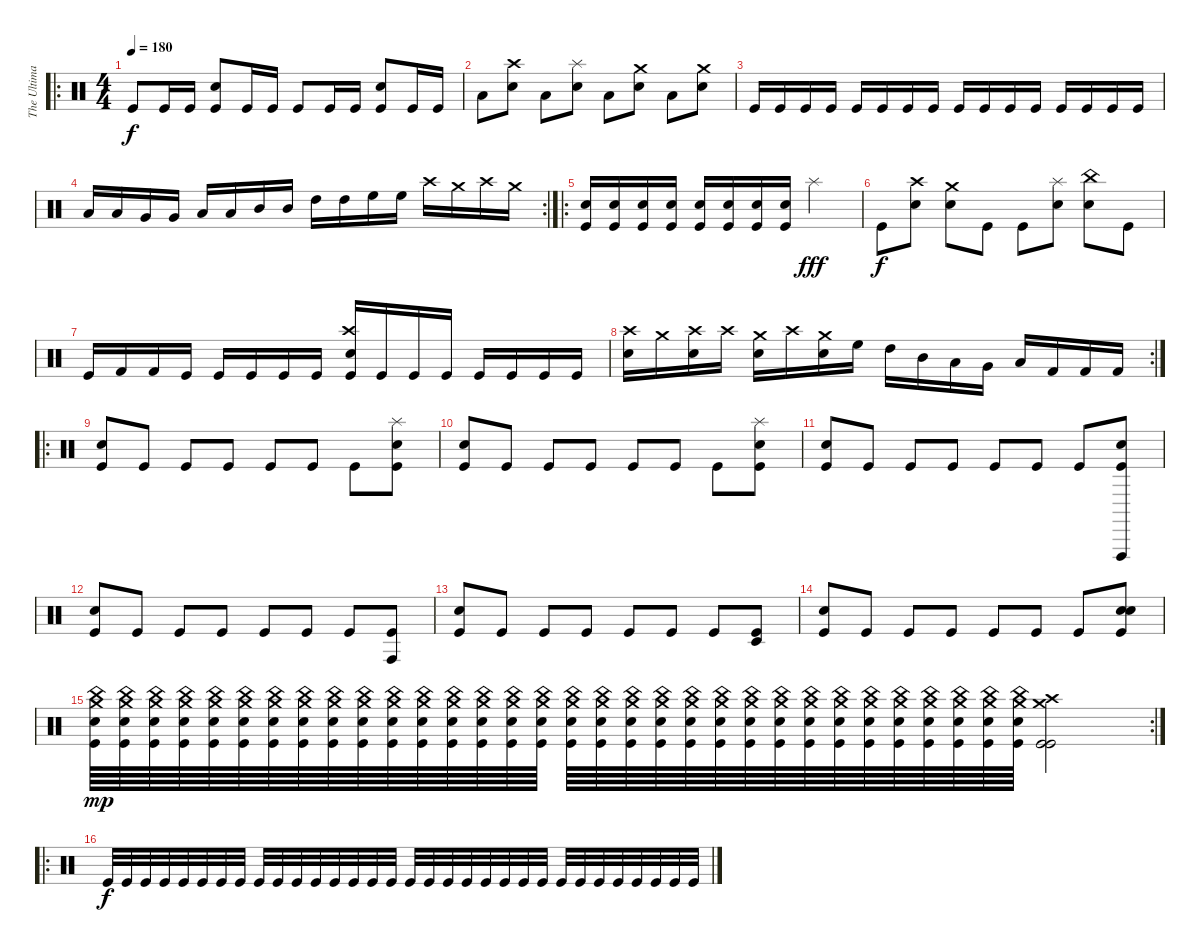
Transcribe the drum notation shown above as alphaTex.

\track ("The Ultimate hero" "The Ultima") {instrument percussion}
\staff {score}
\articulation defaults
\ro
\ts (4 4)
\tempo 180
\clef neutral
\ks c "Kick (hit)".8{dy f} "Kick (hit)".16 "Kick (hit)".16
("Kick (hit)" "Snare (hit) 2").8 "Kick (hit)".16 "Kick (hit)".16 "Kick (hit)".8 "Kick (hit)".16 "Kick (hit)".16 ("Kick (hit)" "Snare (hit) 2").8 "Kick (hit)".16 "Kick (hit)".16 |
"Low Floor Tom (hit)".8 ("Crash high (hit)" "Snare (hit) 2").8 "Low Floor Tom (hit)".8 ("Splash (hit)" "Snare (hit) 2").8 "Low Floor Tom (hit)".8 ("Crash medium (hit)" "Snare (hit) 2").8 "Low Floor Tom (hit)".8 ("Crash medium (hit)" "Snare (hit) 2").8 |
"Kick (hit)".16 "Kick (hit)".16 "Kick (hit)".16 "Kick (hit)".16 "Kick (hit)".16 "Kick (hit)".16 "Kick (hit)".16 "Kick (hit)".16 "Kick (hit)".16 "Kick (hit)".16 "Kick (hit)".16 "Kick (hit)".16 "Kick (hit)".16 "Kick (hit)".16 "Kick (hit)".16 "Kick (hit)".16 |
\rc 2 "Low Floor Tom (hit)".16 "Low Floor Tom (hit)".16 "Very Low Tom (hit)".16 "Very Low Tom (hit)".16 "Low Tom (hit)".16 "Low Tom (hit)".16 "Mid Tom (hit)".16 "Mid Tom (hit)".16 "High Tom (hit)".16 "High Tom (hit)".16 "High Floor Tom (hit)".16 "High Floor Tom (hit)".16 "Crash high (hit)".16 "Crash medium (hit)".16 "Crash high (hit)".16 "Crash medium (hit)".16
|
\ro
("Kick (hit)" "Snare (hit) 2").16 ("Kick (hit)" "Snare (hit) 2").16 ("Kick (hit)" "Snare (hit) 2").16 ("Kick (hit)" "Snare (hit) 2").16 ("Kick (hit)" "Snare (hit) 2").16 ("Kick (hit)" "Snare (hit) 2").16 ("Kick (hit)" "Snare (hit) 2").16 ("Kick (hit)" "Snare (hit) 2").16 "Splash (hit)".2{dy fff} |
"Kick (hit)".8{dy f} ("Crash high (hit)" "Snare (hit) 2").8 ("Crash medium (hit)" "Snare (hit) 2").8 "Kick (hit)".8 "Kick (hit)".8 ("Splash (hit)" "Snare (hit) 2").8 ("China (hit)" "Snare (hit) 2").8 "Kick (hit)".8 |
"Kick (hit)".16 "Kick (hit) 2".16 "Kick (hit) 2".16 "Kick (hit)".16 "Kick (hit)".16 "Kick (hit)".16 "Kick (hit)".16 "Kick (hit)".16 ("Electric Snare (hit)" "Kick (hit)" "Crash high (hit)").16 "Kick (hit)".16 "Kick (hit)".16 "Kick (hit)".16 "Kick (hit)".16 "Kick (hit)".16 "Kick (hit)".16 "Kick (hit)".16 |
\rc 2
("Crash high (hit)" "Snare (hit) 2").16 "Crash medium (hit)".16 ("Crash high (hit)" "Snare (hit) 2").16 "Crash high (hit)".16 ("Crash medium (hit)" "Snare (hit) 2").16 "Crash high (hit)".16 ("Crash medium (hit)" "Snare (hit) 2").16 "High Floor Tom (hit)".16 "High Tom (hit)".16 "Mid Tom (hit)".16 "Low Tom (hit)".16 "Very Low Tom (hit)".16 "Low Floor Tom (hit)".16 "Kick (hit) 2".16 "Kick (hit) 2".16 "Kick (hit) 2".16 |
\ro
("Kick (hit)" "Snare (hit) 2").8 "Kick (hit)".8 "Kick (hit)".8 "Kick (hit)".8 "Kick (hit)".8 "Kick (hit)".8 "Kick (hit)".8 ("Kick (hit)" "Snare (hit) 2" "Splash (hit)").8 |
("Kick (hit)" "Snare (hit) 2").8 "Kick (hit)".8 "Kick (hit)".8 "Kick (hit)".8 "Kick (hit)".8 "Kick (hit)".8 "Kick (hit)".8 ("Kick (hit)" "Snare (hit) 2" "Splash (hit)").8 |
("Kick (hit)" "Snare (hit) 2").8 "Kick (hit)".8 "Kick (hit)".8 "Kick (hit)".8 "Kick (hit)".8 "Kick (hit)".8 "Kick (hit)".8 ("Kick (hit)" "Snare (hit) 2" "Vibraslap (hit)").8 |
("Kick (hit)" "Electric Snare (hit)").8 "Kick (hit)".8 "Kick (hit)".8 "Kick (hit)".8 "Kick (hit)".8 "Kick (hit)".8 "Kick (hit)".8 ("Kick (hit)" "Conga high (hit)").8 |
("Kick (hit)" "Electric Snare (hit)").8 "Kick (hit)".8 "Kick (hit)".8 "Kick (hit)".8 "Kick (hit)".8 "Kick (hit)".8 "Kick (hit)".8 ("Kick (hit)" "Timbale low (hit)").8 |
("Kick (hit)" "Snare (hit) 2").8 "Kick (hit)".8 "Kick (hit)".8 "Kick (hit)".8 "Kick (hit)".8 "Kick (hit)".8 "Kick (hit)".8 ("Kick (hit)" "Hand Clap (hit)" "Snare (hit) 2").8 |
\rc 2
("China (hit)" "Snare (hit) 2" "Kick (hit)" "Crash medium (hit)").64{dy mp} ("China (hit)" "Snare (hit) 2" "Kick (hit)" "Crash medium (hit)").64 ("China (hit)" "Snare (hit) 2" "Kick (hit)" "Crash medium (hit)").64 ("China (hit)" "Snare (hit) 2" "Kick (hit)" "Crash medium (hit)").64 ("China (hit)" "Snare (hit) 2" "Kick (hit)" "Crash medium (hit)").64 ("China (hit)" "Snare (hit) 2" "Kick (hit)" "Crash medium (hit)").64 ("China (hit)" "Snare (hit) 2" "Kick (hit)" "Crash medium (hit)").64 ("China (hit)" "Snare (hit) 2" "Kick (hit)" "Crash medium (hit)").64 ("China (hit)" "Snare (hit) 2" "Kick (hit)" "Crash medium (hit)").64 ("China (hit)" "Snare (hit) 2" "Kick (hit)" "Crash medium (hit)").64 ("China (hit)" "Snare (hit) 2" "Kick (hit)" "Crash medium (hit)").64 ("China (hit)" "Snare (hit) 2" "Kick (hit)" "Crash medium (hit)").64 ("China (hit)" "Snare (hit) 2" "Kick (hit)" "Crash medium (hit)").64 ("China (hit)" "Snare (hit) 2" "Kick (hit)" "Crash medium (hit)").64 ("China (hit)" "Snare (hit) 2" "Kick (hit)" "Crash medium (hit)").64 ("China (hit)" "Snare (hit) 2" "Kick (hit)" "Crash medium (hit)").64 ("China (hit)" "Snare (hit) 2" "Kick (hit)" "Crash medium (hit)").64 ("China (hit)" "Snare (hit) 2" "Kick (hit)" "Crash medium (hit)").64 ("China (hit)" "Snare (hit) 2" "Kick (hit)" "Crash medium (hit)").64 ("China (hit)" "Snare (hit) 2" "Kick (hit)" "Crash medium (hit)").64 ("China (hit)" "Snare (hit) 2" "Kick (hit)" "Crash medium (hit)").64 ("China (hit)" "Snare (hit) 2" "Kick (hit)" "Crash medium (hit)").64 ("China (hit)" "Snare (hit) 2" "Kick (hit)" "Crash medium (hit)").64 ("China (hit)" "Snare (hit) 2" "Kick (hit)" "Crash medium (hit)").64 ("China (hit)" "Snare (hit) 2" "Kick (hit)" "Crash medium (hit)").64 ("China (hit)" "Snare (hit) 2" "Kick (hit)" "Crash medium (hit)").64 ("China (hit)" "Snare (hit) 2" "Kick (hit)" "Crash medium (hit)").64 ("China (hit)" "Snare (hit) 2" "Kick (hit)" "Crash medium (hit)").64 ("China (hit)" "Snare (hit) 2" "Kick (hit)" "Crash medium (hit)").64 ("China (hit)" "Snare (hit) 2" "Kick (hit)" "Crash medium (hit)").64 ("China (hit)" "Snare (hit) 2" "Kick (hit)" "Crash medium (hit)").64 ("China (hit)" "Snare (hit) 2" "Kick (hit)" "Crash medium (hit)").64 ("Crash high (hit)" "Kick (hit)" "Kick (hit)" "Crash medium (hit)").2 |
\ro "Kick (hit)".32{dy f} "Kick (hit)".32 "Kick (hit)".32 "Kick (hit)".32 "Kick (hit)".32 "Kick (hit)".32 "Kick (hit)".32 "Kick (hit)".32 "Kick (hit)".32 "Kick (hit)".32 "Kick (hit)".32 "Kick (hit)".32 "Kick (hit)".32 "Kick (hit)".32 "Kick (hit)".32 "Kick (hit)".32 "Kick (hit)".32 "Kick (hit)".32 "Kick (hit)".32 "Kick (hit)".32 "Kick (hit)".32 "Kick (hit)".32 "Kick (hit)".32 "Kick (hit)".32 "Kick (hit)".32 "Kick (hit)".32 "Kick (hit)".32 "Kick (hit)".32 "Kick (hit)".32 "Kick (hit)".32 "Kick (hit)".32 "Kick (hit)".32
